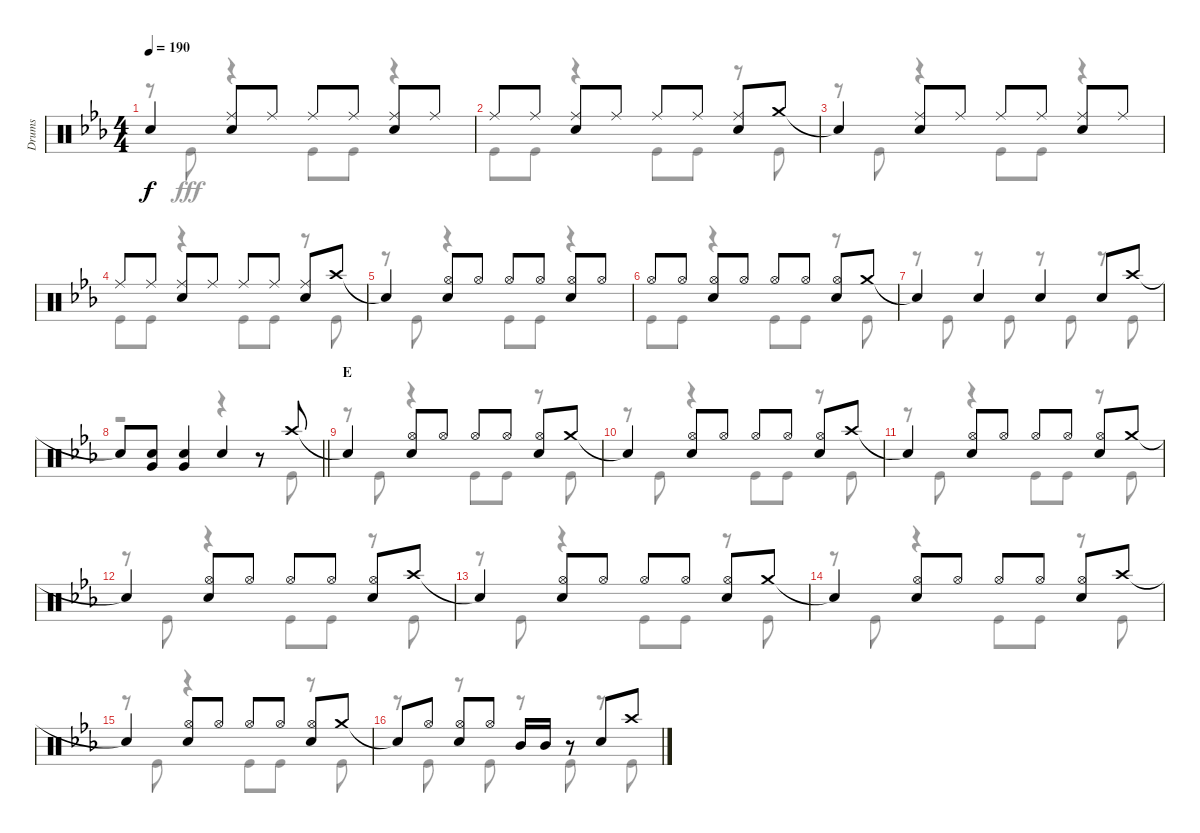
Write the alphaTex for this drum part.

\track ("Drums" "Drums") {instrument percussion}
\staff {score}
\articulation defaults
\voice
\ts (4 4)
\tempo 190
\clef neutral
\ks eb "Snare (hit)"{t}.4{dy f}
("Ride (middle)" "Snare (hit) 2").8 "Ride (middle)".8 "Ride (middle)".8 "Ride (middle)".8 ("Ride (middle)" "Snare (hit) 2").8 "Ride (middle)".8 |
"Ride (middle)".8 "Ride (middle)".8 ("Ride (middle)" "Snare (hit) 2").8 "Ride (middle)".8 "Ride (middle)".8 "Ride (middle)".8 ("Ride (middle)" "Snare (hit) 2").8 "Crash medium (hit)".8 |
"Snare (hit)"{t}.4 ("Ride (middle)" "Snare (hit) 2").8 "Ride (middle)".8 "Ride (middle)".8 "Ride (middle)".8 ("Ride (middle)" "Snare (hit) 2").8 "Ride (middle)".8 |
"Ride (middle)".8 "Ride (middle)".8 ("Ride (middle)" "Snare (hit) 2").8 "Ride (middle)".8 "Ride (middle)".8 "Ride (middle)".8 ("Ride (middle)" "Snare (hit) 2").8 "Crash high (hit)".8 |
"Snare (hit)"{t}.4 ("Hi-Hat (open)" "Snare (hit) 2").8 "Hi-Hat (open)".8 "Hi-Hat (open)".8 "Hi-Hat (open)".8 ("Hi-Hat (open)" "Snare (hit) 2").8 "Hi-Hat (open)".8 |
"Hi-Hat (open)".8 "Hi-Hat (open)".8 ("Hi-Hat (open)" "Snare (hit) 2").8 "Hi-Hat (open)".8 "Hi-Hat (open)".8 "Hi-Hat (open)".8 ("Hi-Hat (open)" "Snare (hit) 2").8 "Crash medium (hit)".8 |
"Snare (hit)"{t}.4 "Snare (hit) 2".4 "Snare (hit) 2".4 "Snare (hit) 2".8 "Crash high (hit)".8 |
\barLineRight lightlight "Snare (hit)"{t}.8
("Snare (hit) 2" "Very Low Tom (hit)").8 ("Snare (hit) 2" "Very Low Tom (hit)").4 "Snare (hit) 2".4 r.8 "Crash high (hit)".8 |
\section ("" "E")
"Snare (hit)"{t}.4 ("Hi-Hat (open)" "Snare (hit) 2").8 "Hi-Hat (open)".8 "Hi-Hat (open)".8 "Hi-Hat (open)".8 ("Hi-Hat (open)" "Snare (hit) 2").8 "Crash medium (hit)".8 |
"Snare (hit)"{t}.4 ("Hi-Hat (open)" "Snare (hit) 2").8 "Hi-Hat (open)".8 "Hi-Hat (open)".8 "Hi-Hat (open)".8 ("Hi-Hat (open)" "Snare (hit) 2").8 "Crash high (hit)".8 |
"Snare (hit)"{t}.4 ("Hi-Hat (open)" "Snare (hit) 2").8 "Hi-Hat (open)".8 "Hi-Hat (open)".8 "Hi-Hat (open)".8 ("Hi-Hat (open)" "Snare (hit) 2").8 "Crash medium (hit)".8 |
"Snare (hit)"{t}.4 ("Hi-Hat (open)" "Snare (hit) 2").8 "Hi-Hat (open)".8 "Hi-Hat (open)".8 "Hi-Hat (open)".8 ("Hi-Hat (open)" "Snare (hit) 2").8 "Crash high (hit)".8 |
"Snare (hit)"{t}.4 ("Hi-Hat (open)" "Snare (hit) 2").8 "Hi-Hat (open)".8 "Hi-Hat (open)".8 "Hi-Hat (open)".8 ("Hi-Hat (open)" "Snare (hit) 2").8 "Crash medium (hit)".8 |
"Snare (hit)"{t}.4 ("Hi-Hat (open)" "Snare (hit) 2").8 "Hi-Hat (open)".8 "Hi-Hat (open)".8 "Hi-Hat (open)".8 ("Hi-Hat (open)" "Snare (hit) 2").8 "Crash high (hit)".8 |
"Snare (hit)"{t}.4 ("Hi-Hat (open)" "Snare (hit) 2").8 "Hi-Hat (open)".8 "Hi-Hat (open)".8 "Hi-Hat (open)".8 ("Hi-Hat (open)" "Snare (hit) 2").8 "Crash medium (hit)".8 |
"Snare (hit)"{t}.8 "Hi-Hat (open)".8 ("Hi-Hat (open)" "Snare (hit) 2").8 "Hi-Hat (open)".8 "Mid Tom (hit)".16 "Mid Tom (hit)".16 r.8 "Snare (hit) 2".8 "Crash high (hit)".8
\voice
\clef neutral
\ottava regular
\simile none
\ks eb
r.8{dy fff} "Kick (hit)".8 r.4 "Kick (hit)".8 "Kick (hit)".8 r.4 |
"Kick (hit)".8 "Kick (hit)".8 r.4 "Kick (hit)".8 "Kick (hit)".8 r.8 "Kick (hit)".8 |
r.8 "Kick (hit)".8 r.4 "Kick (hit)".8 "Kick (hit)".8 r.4 |
"Kick (hit)".8 "Kick (hit)".8 r.4 "Kick (hit)".8 "Kick (hit)".8 r.8 "Kick (hit)".8 |
r.8 "Kick (hit)".8 r.4 "Kick (hit)".8 "Kick (hit)".8 r.4 |
"Kick (hit)".8 "Kick (hit)".8 r.4 "Kick (hit)".8 "Kick (hit)".8 r.8 "Kick (hit)".8 |
r.8 "Kick (hit)".8 r.8 "Kick (hit)".8 r.8 "Kick (hit)".8 r.8 "Kick (hit)".8 |
\barLineRight lightlight
r.2 r.4 r.8 "Kick (hit)".8 |
r.8 "Kick (hit)".8 r.4 "Kick (hit)".8 "Kick (hit)".8 r.8 "Kick (hit)".8 |
r.8 "Kick (hit)".8 r.4 "Kick (hit)".8 "Kick (hit)".8 r.8 "Kick (hit)".8 |
r.8 "Kick (hit)".8 r.4 "Kick (hit)".8 "Kick (hit)".8 r.8 "Kick (hit)".8 |
r.8 "Kick (hit)".8 r.4 "Kick (hit)".8 "Kick (hit)".8 r.8 "Kick (hit)".8 |
r.8 "Kick (hit)".8 r.4 "Kick (hit)".8 "Kick (hit)".8 r.8 "Kick (hit)".8 |
r.8 "Kick (hit)".8 r.4 "Kick (hit)".8 "Kick (hit)".8 r.8 "Kick (hit)".8 |
r.8 "Kick (hit)".8 r.4 "Kick (hit)".8 "Kick (hit)".8 r.8 "Kick (hit)".8 |
r.8 "Kick (hit)".8 r.8 "Kick (hit)".8 r.8 "Kick (hit)".8 r.8 "Kick (hit)".8
